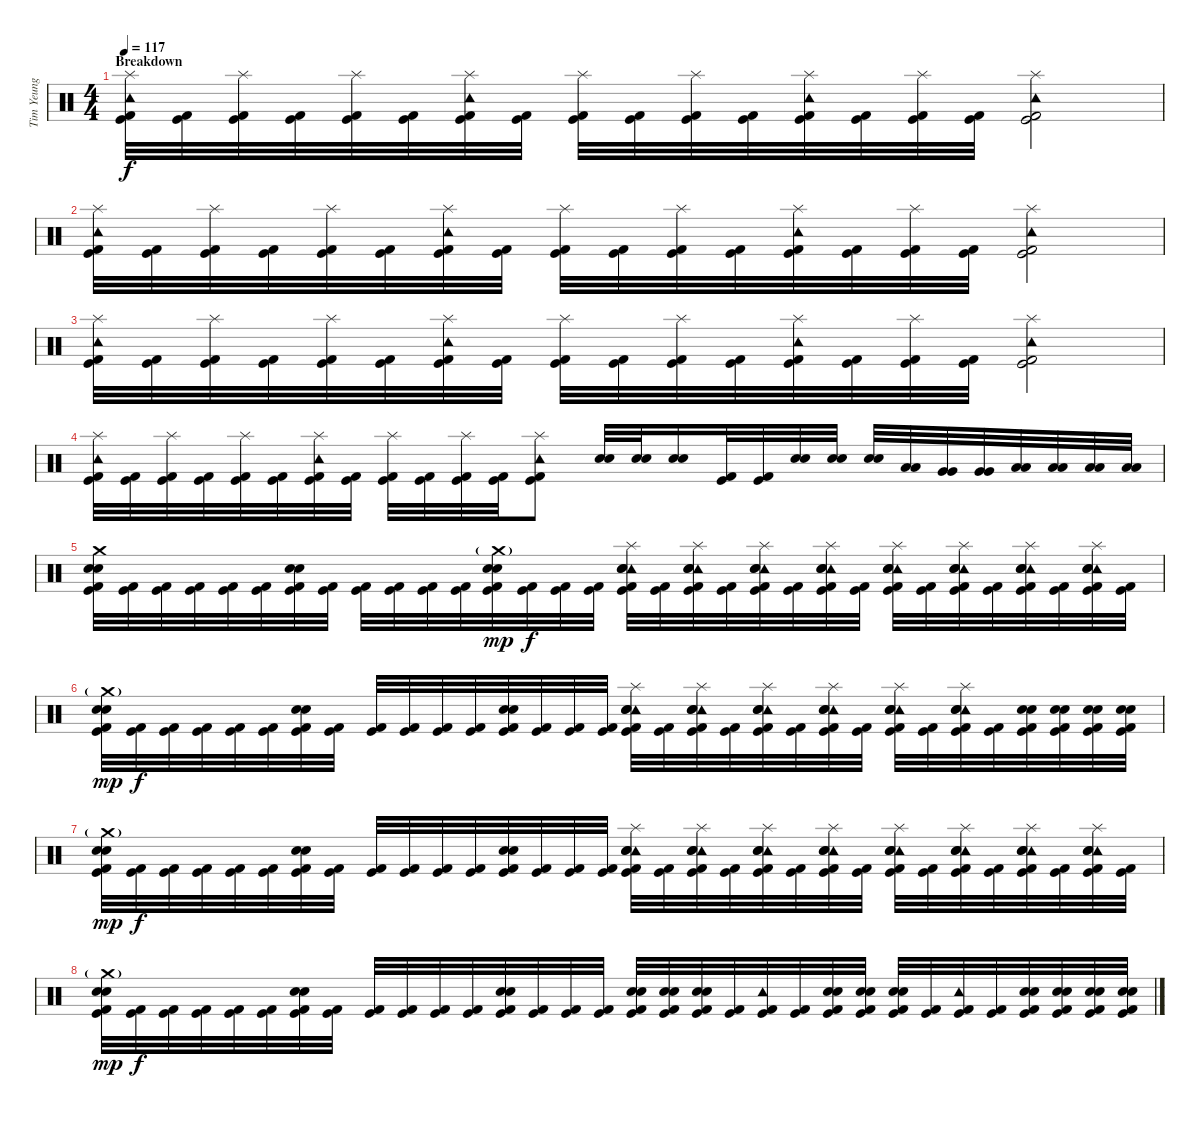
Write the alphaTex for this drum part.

\track ("Tim Yeung" "Tim Yeung") {instrument percussion}
\staff {score}
\articulation defaults
\ts (4 4)
\section ("" "Breakdown")
\tempo 117
\clef neutral
\ks c
("Splash (hit)" "Tambourine (hit)" "Kick (hit)" "Kick (hit) 2").32{dy f} ("Kick (hit)" "Kick (hit) 2").32 ("Splash (hit)" "Kick (hit)" "Kick (hit) 2").32 ("Kick (hit)" "Kick (hit) 2").32 ("Splash (hit)" "Kick (hit)" "Kick (hit) 2").32 ("Kick (hit)" "Kick (hit) 2").32 ("Splash (hit)" "Tambourine (hit)" "Kick (hit)" "Kick (hit) 2").32 ("Kick (hit)" "Kick (hit) 2").32 ("Splash (hit)" "Kick (hit)" "Kick (hit) 2").32 ("Kick (hit)" "Kick (hit) 2").32 ("Splash (hit)" "Kick (hit)" "Kick (hit) 2").32 ("Kick (hit)" "Kick (hit) 2").32 ("Splash (hit)" "Tambourine (hit)" "Kick (hit)" "Kick (hit) 2").32 ("Kick (hit)" "Kick (hit) 2").32 ("Splash (hit)" "Kick (hit)" "Kick (hit) 2").32 ("Kick (hit)" "Kick (hit) 2").32 ("Splash (hit)" "Tambourine (hit)" "Kick (hit)" "Kick (hit) 2").2 |
("Splash (hit)" "Tambourine (hit)" "Kick (hit)" "Kick (hit) 2").32 ("Kick (hit)" "Kick (hit) 2").32 ("Splash (hit)" "Kick (hit)" "Kick (hit) 2").32 ("Kick (hit)" "Kick (hit) 2").32 ("Splash (hit)" "Kick (hit)" "Kick (hit) 2").32 ("Kick (hit)" "Kick (hit) 2").32 ("Splash (hit)" "Tambourine (hit)" "Kick (hit)" "Kick (hit) 2").32 ("Kick (hit)" "Kick (hit) 2").32 ("Splash (hit)" "Kick (hit)" "Kick (hit) 2").32 ("Kick (hit)" "Kick (hit) 2").32 ("Splash (hit)" "Kick (hit)" "Kick (hit) 2").32 ("Kick (hit)" "Kick (hit) 2").32 ("Splash (hit)" "Tambourine (hit)" "Kick (hit)" "Kick (hit) 2").32 ("Kick (hit)" "Kick (hit) 2").32 ("Splash (hit)" "Kick (hit)" "Kick (hit) 2").32 ("Kick (hit)" "Kick (hit) 2").32 ("Splash (hit)" "Tambourine (hit)" "Kick (hit)" "Kick (hit) 2").2 |
("Splash (hit)" "Tambourine (hit)" "Kick (hit)" "Kick (hit) 2").32 ("Kick (hit)" "Kick (hit) 2").32 ("Splash (hit)" "Kick (hit)" "Kick (hit) 2").32 ("Kick (hit)" "Kick (hit) 2").32 ("Splash (hit)" "Kick (hit)" "Kick (hit) 2").32 ("Kick (hit)" "Kick (hit) 2").32 ("Splash (hit)" "Tambourine (hit)" "Kick (hit)" "Kick (hit) 2").32 ("Kick (hit)" "Kick (hit) 2").32 ("Splash (hit)" "Kick (hit)" "Kick (hit) 2").32 ("Kick (hit)" "Kick (hit) 2").32 ("Splash (hit)" "Kick (hit)" "Kick (hit) 2").32 ("Kick (hit)" "Kick (hit) 2").32 ("Splash (hit)" "Tambourine (hit)" "Kick (hit)" "Kick (hit) 2").32 ("Kick (hit)" "Kick (hit) 2").32 ("Splash (hit)" "Kick (hit)" "Kick (hit) 2").32 ("Kick (hit)" "Kick (hit) 2").32 ("Splash (hit)" "Tambourine (hit)" "Kick (hit)" "Kick (hit) 2").2 |
("Splash (hit)" "Tambourine (hit)" "Kick (hit)" "Kick (hit) 2").32 ("Kick (hit)" "Kick (hit) 2").32 ("Splash (hit)" "Kick (hit)" "Kick (hit) 2").32 ("Kick (hit)" "Kick (hit) 2").32 ("Splash (hit)" "Kick (hit)" "Kick (hit) 2").32 ("Kick (hit)" "Kick (hit) 2").32 ("Splash (hit)" "Tambourine (hit)" "Kick (hit)" "Kick (hit) 2").32 ("Kick (hit)" "Kick (hit) 2").32 ("Splash (hit)" "Kick (hit)" "Kick (hit) 2").32 ("Kick (hit)" "Kick (hit) 2").32 ("Splash (hit)" "Kick (hit)" "Kick (hit) 2").32 ("Kick (hit)" "Kick (hit) 2").32 ("Splash (hit)" "Tambourine (hit)" "Kick (hit)" "Kick (hit) 2").8 ("Electric Snare (hit)" "Snare (hit) 2").32 ("Electric Snare (hit)" "Snare (hit) 2").32 ("Electric Snare (hit)" "Snare (hit) 2").16 ("Kick (hit)" "Kick (hit) 2").32 ("Kick (hit)" "Kick (hit) 2").32 ("Electric Snare (hit)" "Snare (hit) 2").32 ("Electric Snare (hit)" "Snare (hit) 2").32 ("Electric Snare (hit)" "Snare (hit) 2").32 ("Low Tom (hit)" "Low Tom (hit)").32 ("Very Low Tom (hit)" "Very Low Tom (hit)").32 ("Very Low Tom (hit)" "Very Low Tom (hit)").32 ("Low Floor Tom (hit)" "Low Floor Tom (hit)").32 ("Low Floor Tom (hit)" "Low Floor Tom (hit)").32 ("Low Floor Tom (hit)" "Low Floor Tom (hit)").32 ("Low Floor Tom (hit)" "Low Floor Tom (hit)").32 |
("Crash medium (hit)" "Electric Snare (hit)" "Snare (hit) 2" "Kick (hit)" "Kick (hit) 2").32 ("Kick (hit)" "Kick (hit) 2").32 ("Kick (hit)" "Kick (hit) 2").32 ("Kick (hit)" "Kick (hit) 2").32 ("Kick (hit)" "Kick (hit) 2").32 ("Kick (hit)" "Kick (hit) 2").32 ("Electric Snare (hit)" "Snare (hit) 2" "Kick (hit)" "Kick (hit) 2").32 ("Kick (hit)" "Kick (hit) 2").32 ("Kick (hit)" "Kick (hit) 2").32 ("Kick (hit)" "Kick (hit) 2").32 ("Kick (hit)" "Kick (hit) 2").32 ("Kick (hit)" "Kick (hit) 2").32 ("Crash medium (hit)"{g} "Electric Snare (hit)" "Snare (hit) 2" "Kick (hit)" "Kick (hit) 2").32{dy mp} ("Kick (hit)" "Kick (hit) 2").32{dy f} ("Kick (hit)" "Kick (hit) 2").32 ("Kick (hit)" "Kick (hit) 2").32 ("Tambourine (hit)" "Splash (hit)" "Electric Snare (hit)" "Snare (hit) 2" "Kick (hit)" "Kick (hit) 2").32 ("Kick (hit)" "Kick (hit) 2").32 ("Tambourine (hit)" "Splash (hit)" "Electric Snare (hit)" "Snare (hit) 2" "Kick (hit)" "Kick (hit) 2").32 ("Kick (hit)" "Kick (hit) 2").32 ("Tambourine (hit)" "Splash (hit)" "Electric Snare (hit)" "Snare (hit) 2" "Kick (hit)" "Kick (hit) 2").32 ("Kick (hit)" "Kick (hit) 2").32 ("Tambourine (hit)" "Splash (hit)" "Electric Snare (hit)" "Snare (hit) 2" "Kick (hit)" "Kick (hit) 2").32 ("Kick (hit)" "Kick (hit) 2").32 ("Tambourine (hit)" "Splash (hit)" "Electric Snare (hit)" "Snare (hit) 2" "Kick (hit)" "Kick (hit) 2").32 ("Kick (hit)" "Kick (hit) 2").32 ("Tambourine (hit)" "Splash (hit)" "Electric Snare (hit)" "Snare (hit) 2" "Kick (hit)" "Kick (hit) 2").32 ("Kick (hit)" "Kick (hit) 2").32 ("Tambourine (hit)" "Splash (hit)" "Electric Snare (hit)" "Snare (hit) 2" "Kick (hit)" "Kick (hit) 2").32 ("Kick (hit)" "Kick (hit) 2").32 ("Tambourine (hit)" "Splash (hit)" "Electric Snare (hit)" "Snare (hit) 2" "Kick (hit)" "Kick (hit) 2").32 ("Kick (hit)" "Kick (hit) 2").32 |
("Crash medium (hit)"{g} "Electric Snare (hit)" "Snare (hit) 2" "Kick (hit)" "Kick (hit) 2").32{dy mp} ("Kick (hit)" "Kick (hit) 2").32{dy f} ("Kick (hit)" "Kick (hit) 2").32 ("Kick (hit)" "Kick (hit) 2").32 ("Kick (hit)" "Kick (hit) 2").32 ("Kick (hit)" "Kick (hit) 2").32 ("Electric Snare (hit)" "Snare (hit) 2" "Kick (hit)" "Kick (hit) 2").32 ("Kick (hit)" "Kick (hit) 2").32 ("Kick (hit)" "Kick (hit) 2").32 ("Kick (hit)" "Kick (hit) 2").32 ("Kick (hit)" "Kick (hit) 2").32 ("Kick (hit)" "Kick (hit) 2").32 ("Electric Snare (hit)" "Snare (hit) 2" "Kick (hit)" "Kick (hit) 2").32 ("Kick (hit)" "Kick (hit) 2").32 ("Kick (hit)" "Kick (hit) 2").32 ("Kick (hit)" "Kick (hit) 2").32 ("Tambourine (hit)" "Splash (hit)" "Electric Snare (hit)" "Snare (hit) 2" "Kick (hit)" "Kick (hit) 2").32 ("Kick (hit)" "Kick (hit) 2").32 ("Tambourine (hit)" "Splash (hit)" "Electric Snare (hit)" "Snare (hit) 2" "Kick (hit)" "Kick (hit) 2").32 ("Kick (hit)" "Kick (hit) 2").32 ("Tambourine (hit)" "Splash (hit)" "Electric Snare (hit)" "Snare (hit) 2" "Kick (hit)" "Kick (hit) 2").32 ("Kick (hit)" "Kick (hit) 2").32 ("Tambourine (hit)" "Splash (hit)" "Electric Snare (hit)" "Snare (hit) 2" "Kick (hit)" "Kick (hit) 2").32 ("Kick (hit)" "Kick (hit) 2").32 ("Tambourine (hit)" "Splash (hit)" "Electric Snare (hit)" "Snare (hit) 2" "Kick (hit)" "Kick (hit) 2").32 ("Kick (hit)" "Kick (hit) 2").32 ("Tambourine (hit)" "Splash (hit)" "Electric Snare (hit)" "Snare (hit) 2" "Kick (hit)" "Kick (hit) 2").32 ("Kick (hit)" "Kick (hit) 2").32 ("Electric Snare (hit)" "Snare (hit) 2" "Kick (hit)" "Kick (hit) 2").32 ("Electric Snare (hit)" "Snare (hit) 2" "Kick (hit)" "Kick (hit) 2").32 ("Electric Snare (hit)" "Snare (hit) 2" "Kick (hit)" "Kick (hit) 2").32 ("Electric Snare (hit)" "Snare (hit) 2" "Kick (hit)" "Kick (hit) 2").32 |
("Crash medium (hit)"{g} "Electric Snare (hit)" "Snare (hit) 2" "Kick (hit)" "Kick (hit) 2").32{dy mp} ("Kick (hit)" "Kick (hit) 2").32{dy f} ("Kick (hit)" "Kick (hit) 2").32 ("Kick (hit)" "Kick (hit) 2").32 ("Kick (hit)" "Kick (hit) 2").32 ("Kick (hit)" "Kick (hit) 2").32 ("Electric Snare (hit)" "Snare (hit) 2" "Kick (hit)" "Kick (hit) 2").32 ("Kick (hit)" "Kick (hit) 2").32 ("Kick (hit)" "Kick (hit) 2").32 ("Kick (hit)" "Kick (hit) 2").32 ("Kick (hit)" "Kick (hit) 2").32 ("Kick (hit)" "Kick (hit) 2").32 ("Electric Snare (hit)" "Snare (hit) 2" "Kick (hit)" "Kick (hit) 2").32 ("Kick (hit)" "Kick (hit) 2").32 ("Kick (hit)" "Kick (hit) 2").32 ("Kick (hit)" "Kick (hit) 2").32 ("Tambourine (hit)" "Splash (hit)" "Electric Snare (hit)" "Snare (hit) 2" "Kick (hit)" "Kick (hit) 2").32 ("Kick (hit)" "Kick (hit) 2").32 ("Tambourine (hit)" "Splash (hit)" "Electric Snare (hit)" "Snare (hit) 2" "Kick (hit)" "Kick (hit) 2").32 ("Kick (hit)" "Kick (hit) 2").32 ("Tambourine (hit)" "Splash (hit)" "Electric Snare (hit)" "Snare (hit) 2" "Kick (hit)" "Kick (hit) 2").32 ("Kick (hit)" "Kick (hit) 2").32 ("Tambourine (hit)" "Splash (hit)" "Electric Snare (hit)" "Snare (hit) 2" "Kick (hit)" "Kick (hit) 2").32 ("Kick (hit)" "Kick (hit) 2").32 ("Tambourine (hit)" "Splash (hit)" "Electric Snare (hit)" "Snare (hit) 2" "Kick (hit)" "Kick (hit) 2").32 ("Kick (hit)" "Kick (hit) 2").32 ("Tambourine (hit)" "Splash (hit)" "Electric Snare (hit)" "Snare (hit) 2" "Kick (hit)" "Kick (hit) 2").32 ("Kick (hit)" "Kick (hit) 2").32 ("Tambourine (hit)" "Splash (hit)" "Electric Snare (hit)" "Snare (hit) 2" "Kick (hit)" "Kick (hit) 2").32 ("Kick (hit)" "Kick (hit) 2").32 ("Tambourine (hit)" "Splash (hit)" "Electric Snare (hit)" "Snare (hit) 2" "Kick (hit)" "Kick (hit) 2").32 ("Kick (hit)" "Kick (hit) 2").32 |
("Crash medium (hit)"{g} "Electric Snare (hit)" "Snare (hit) 2" "Kick (hit)" "Kick (hit) 2").32{dy mp} ("Kick (hit)" "Kick (hit) 2").32{dy f} ("Kick (hit)" "Kick (hit) 2").32 ("Kick (hit)" "Kick (hit) 2").32 ("Kick (hit)" "Kick (hit) 2").32 ("Kick (hit)" "Kick (hit) 2").32 ("Electric Snare (hit)" "Snare (hit) 2" "Kick (hit)" "Kick (hit) 2").32 ("Kick (hit)" "Kick (hit) 2").32 ("Kick (hit)" "Kick (hit) 2").32 ("Kick (hit)" "Kick (hit) 2").32 ("Kick (hit)" "Kick (hit) 2").32 ("Kick (hit)" "Kick (hit) 2").32 ("Electric Snare (hit)" "Snare (hit) 2" "Kick (hit)" "Kick (hit) 2").32 ("Kick (hit)" "Kick (hit) 2").32 ("Kick (hit)" "Kick (hit) 2").32 ("Kick (hit)" "Kick (hit) 2").32 ("Electric Snare (hit)" "Snare (hit) 2" "Kick (hit)" "Kick (hit) 2").32 ("Electric Snare (hit)" "Snare (hit) 2" "Kick (hit)" "Kick (hit) 2").32 ("Electric Snare (hit)" "Snare (hit) 2" "Kick (hit)" "Kick (hit) 2").32 ("Kick (hit)" "Kick (hit) 2").32 ("Tambourine (hit)" "Kick (hit)" "Kick (hit) 2").32 ("Kick (hit)" "Kick (hit) 2").32 ("Electric Snare (hit)" "Snare (hit) 2" "Kick (hit)" "Kick (hit) 2").32 ("Electric Snare (hit)" "Snare (hit) 2" "Kick (hit)" "Kick (hit) 2").32 ("Electric Snare (hit)" "Snare (hit) 2" "Kick (hit)" "Kick (hit) 2").32 ("Kick (hit)" "Kick (hit) 2").32 ("Tambourine (hit)" "Kick (hit)" "Kick (hit) 2").32 ("Kick (hit)" "Kick (hit) 2").32 ("Electric Snare (hit)" "Snare (hit) 2" "Kick (hit)" "Kick (hit) 2").32 ("Electric Snare (hit)" "Snare (hit) 2" "Kick (hit)" "Kick (hit) 2").32 ("Electric Snare (hit)" "Snare (hit) 2" "Kick (hit)" "Kick (hit) 2").32 ("Electric Snare (hit)" "Snare (hit) 2" "Kick (hit)" "Kick (hit) 2").32
